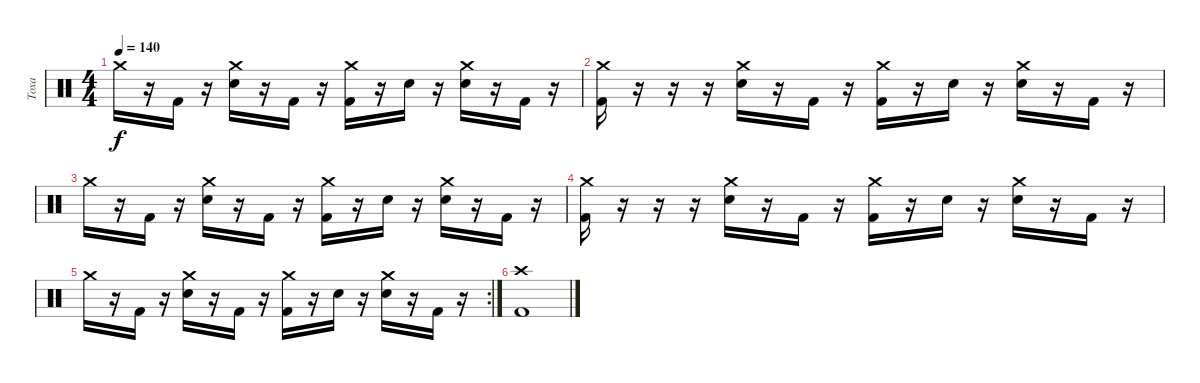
\track ("Тоха" "Тоха") {instrument percussion}
\staff {score}
\articulation defaults
\ts (4 4)
\tempo 140
\clef neutral
\ks c "Crash medium (hit)".16{dy f}
r.16 "Kick (hit) 2".16 r.16 ("Snare (hit) 2" "Crash medium (hit)").16 r.16 "Kick (hit) 2".16 r.16 ("Kick (hit) 2" "Crash medium (hit)").16 r.16 "Snare (hit) 2".16 r.16 ("Snare (hit) 2" "Crash medium (hit)").16 r.16 "Kick (hit) 2".16 r.16 |
("Kick (hit) 2" "Crash medium (hit)").16 r.16 r.16 r.16 ("Snare (hit) 2" "Crash medium (hit)").16 r.16 "Kick (hit) 2".16 r.16 ("Kick (hit) 2" "Crash medium (hit)").16 r.16 "Snare (hit) 2".16 r.16 ("Snare (hit) 2" "Crash medium (hit)").16 r.16 "Kick (hit) 2".16 r.16 |
"Crash medium (hit)".16 r.16 "Kick (hit) 2".16 r.16 ("Snare (hit) 2" "Crash medium (hit)").16 r.16 "Kick (hit) 2".16 r.16 ("Kick (hit) 2" "Crash medium (hit)").16 r.16 "Snare (hit) 2".16 r.16 ("Snare (hit) 2" "Crash medium (hit)").16 r.16 "Kick (hit) 2".16 r.16 |
("Kick (hit) 2" "Crash medium (hit)").16 r.16 r.16 r.16 ("Snare (hit) 2" "Crash medium (hit)").16 r.16 "Kick (hit) 2".16 r.16 ("Kick (hit) 2" "Crash medium (hit)").16 r.16 "Snare (hit) 2".16 r.16 ("Snare (hit) 2" "Crash medium (hit)").16 r.16 "Kick (hit) 2".16 r.16 |
\rc 2 "Crash medium (hit)".16
r.16 "Kick (hit) 2".16 r.16 ("Snare (hit) 2" "Crash medium (hit)").16 r.16 "Kick (hit) 2".16 r.16 ("Kick (hit) 2" "Crash medium (hit)").16 r.16 "Snare (hit) 2".16 r.16 ("Snare (hit) 2" "Crash medium (hit)").16 r.16 "Kick (hit) 2".16 r.16 |
("Kick (hit) 2" "Crash high (hit)").1
